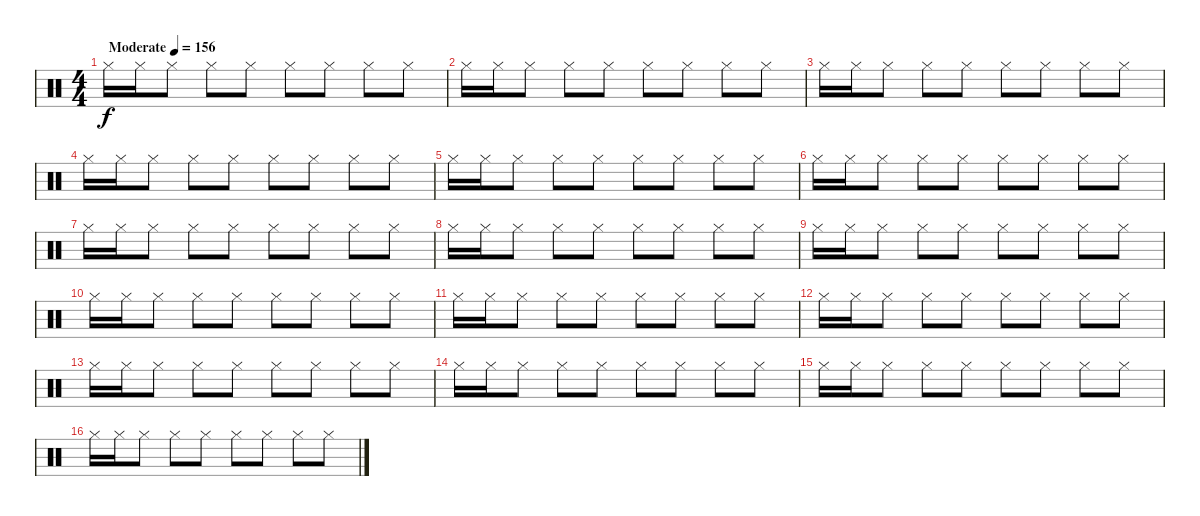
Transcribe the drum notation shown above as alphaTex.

\track "" {instrument percussion}
\staff {score}
\articulation defaults
\ts (4 4)
\tempo (156 "Moderate")
\clef neutral
\ks c "Hi-Hat (closed)".16{dy f} "Hi-Hat (closed)".16 "Hi-Hat (closed)".8 "Hi-Hat (closed)".8 "Hi-Hat (closed)".8 "Hi-Hat (closed)".8 "Hi-Hat (closed)".8 "Hi-Hat (closed)".8 "Hi-Hat (closed)".8
|
"Hi-Hat (closed)".16 "Hi-Hat (closed)".16 "Hi-Hat (closed)".8 "Hi-Hat (closed)".8 "Hi-Hat (closed)".8 "Hi-Hat (closed)".8 "Hi-Hat (closed)".8 "Hi-Hat (closed)".8 "Hi-Hat (closed)".8 |
"Hi-Hat (closed)".16 "Hi-Hat (closed)".16 "Hi-Hat (closed)".8 "Hi-Hat (closed)".8 "Hi-Hat (closed)".8 "Hi-Hat (closed)".8 "Hi-Hat (closed)".8 "Hi-Hat (closed)".8 "Hi-Hat (closed)".8 |
"Hi-Hat (closed)".16 "Hi-Hat (closed)".16 "Hi-Hat (closed)".8 "Hi-Hat (closed)".8 "Hi-Hat (closed)".8 "Hi-Hat (closed)".8 "Hi-Hat (closed)".8 "Hi-Hat (closed)".8 "Hi-Hat (closed)".8 |
"Hi-Hat (closed)".16 "Hi-Hat (closed)".16 "Hi-Hat (closed)".8 "Hi-Hat (closed)".8 "Hi-Hat (closed)".8 "Hi-Hat (closed)".8 "Hi-Hat (closed)".8 "Hi-Hat (closed)".8 "Hi-Hat (closed)".8 |
"Hi-Hat (closed)".16 "Hi-Hat (closed)".16 "Hi-Hat (closed)".8 "Hi-Hat (closed)".8 "Hi-Hat (closed)".8 "Hi-Hat (closed)".8 "Hi-Hat (closed)".8 "Hi-Hat (closed)".8 "Hi-Hat (closed)".8 |
"Hi-Hat (closed)".16 "Hi-Hat (closed)".16 "Hi-Hat (closed)".8 "Hi-Hat (closed)".8 "Hi-Hat (closed)".8 "Hi-Hat (closed)".8 "Hi-Hat (closed)".8 "Hi-Hat (closed)".8 "Hi-Hat (closed)".8 |
"Hi-Hat (closed)".16 "Hi-Hat (closed)".16 "Hi-Hat (closed)".8 "Hi-Hat (closed)".8 "Hi-Hat (closed)".8 "Hi-Hat (closed)".8 "Hi-Hat (closed)".8 "Hi-Hat (closed)".8 "Hi-Hat (closed)".8 |
"Hi-Hat (closed)".16 "Hi-Hat (closed)".16 "Hi-Hat (closed)".8 "Hi-Hat (closed)".8 "Hi-Hat (closed)".8 "Hi-Hat (closed)".8 "Hi-Hat (closed)".8 "Hi-Hat (closed)".8 "Hi-Hat (closed)".8 |
"Hi-Hat (closed)".16 "Hi-Hat (closed)".16 "Hi-Hat (closed)".8 "Hi-Hat (closed)".8 "Hi-Hat (closed)".8 "Hi-Hat (closed)".8 "Hi-Hat (closed)".8 "Hi-Hat (closed)".8 "Hi-Hat (closed)".8 |
"Hi-Hat (closed)".16 "Hi-Hat (closed)".16 "Hi-Hat (closed)".8 "Hi-Hat (closed)".8 "Hi-Hat (closed)".8 "Hi-Hat (closed)".8 "Hi-Hat (closed)".8 "Hi-Hat (closed)".8 "Hi-Hat (closed)".8 |
"Hi-Hat (closed)".16 "Hi-Hat (closed)".16 "Hi-Hat (closed)".8 "Hi-Hat (closed)".8 "Hi-Hat (closed)".8 "Hi-Hat (closed)".8 "Hi-Hat (closed)".8 "Hi-Hat (closed)".8 "Hi-Hat (closed)".8 |
"Hi-Hat (closed)".16 "Hi-Hat (closed)".16 "Hi-Hat (closed)".8 "Hi-Hat (closed)".8 "Hi-Hat (closed)".8 "Hi-Hat (closed)".8 "Hi-Hat (closed)".8 "Hi-Hat (closed)".8 "Hi-Hat (closed)".8 |
"Hi-Hat (closed)".16 "Hi-Hat (closed)".16 "Hi-Hat (closed)".8 "Hi-Hat (closed)".8 "Hi-Hat (closed)".8 "Hi-Hat (closed)".8 "Hi-Hat (closed)".8 "Hi-Hat (closed)".8 "Hi-Hat (closed)".8 |
"Hi-Hat (closed)".16 "Hi-Hat (closed)".16 "Hi-Hat (closed)".8 "Hi-Hat (closed)".8 "Hi-Hat (closed)".8 "Hi-Hat (closed)".8 "Hi-Hat (closed)".8 "Hi-Hat (closed)".8 "Hi-Hat (closed)".8 |
"Hi-Hat (closed)".16 "Hi-Hat (closed)".16 "Hi-Hat (closed)".8 "Hi-Hat (closed)".8 "Hi-Hat (closed)".8 "Hi-Hat (closed)".8 "Hi-Hat (closed)".8 "Hi-Hat (closed)".8 "Hi-Hat (closed)".8
